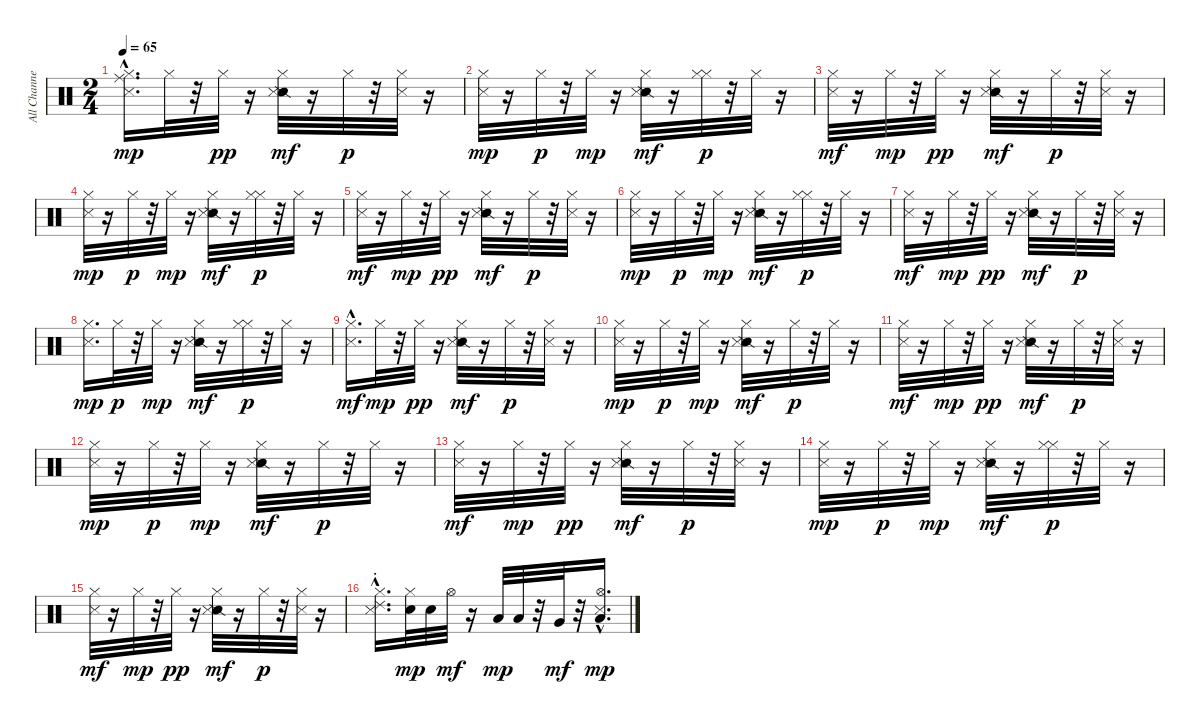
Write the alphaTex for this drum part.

\track ("All Channels*merged" "All Channe") {instrument percussion}
\staff {score}
\articulation defaults
\ts (2 4)
\tempo 65
\clef neutral
\ks c
("Metronome (hit)"{hac} "Hi-Hat (closed)" "Ride (middle)").16{d dy mp} "Hi-Hat (closed)".32 r.32 "Hi-Hat (closed)".32{dy pp} r.16 ("Snare (side stick) 2" "Snare (side stick) 3" "Hi-Hat (closed)").32{dy mf} r.16 "Hi-Hat (closed)".32{dy p} r.32 ("Metronome (hit)" "Hi-Hat (closed)").32 r.16 |
("Metronome (hit)" "Hi-Hat (closed)").32{dy mp} r.16 "Hi-Hat (closed)".32{dy p} r.32 "Hi-Hat (closed)".32{dy mp} r.16 ("Snare (side stick) 2" "Snare (side stick) 3" "Hi-Hat (closed)").32{dy mf} r.16 ("Hi-Hat (closed)" "Hi-Hat (closed)").32{dy p} r.32 "Hi-Hat (closed)".32 r.16 |
("Metronome (hit)" "Hi-Hat (closed)").32{dy mf} r.16 "Hi-Hat (closed)".32{dy mp} r.32 "Hi-Hat (closed)".32{dy pp} r.16 ("Snare (side stick) 2" "Snare (side stick) 3" "Hi-Hat (closed)").32{dy mf} r.16 "Hi-Hat (closed)".32{dy p} r.32 ("Metronome (hit)" "Hi-Hat (closed)").32 r.16 |
("Metronome (hit)" "Hi-Hat (closed)").32{dy mp} r.16 "Hi-Hat (closed)".32{dy p} r.32 "Hi-Hat (closed)".32{dy mp} r.16 ("Snare (side stick) 2" "Snare (side stick) 3" "Hi-Hat (closed)").32{dy mf} r.16 ("Hi-Hat (closed)" "Hi-Hat (closed)").32{dy p} r.32 "Hi-Hat (closed)".32 r.16 |
("Metronome (hit)" "Hi-Hat (closed)").32{dy mf} r.16 "Hi-Hat (closed)".32{dy mp} r.32 "Hi-Hat (closed)".32{dy pp} r.16 ("Snare (side stick) 2" "Snare (side stick) 3" "Hi-Hat (closed)").32{dy mf} r.16 "Hi-Hat (closed)".32{dy p} r.32 ("Metronome (hit)" "Hi-Hat (closed)").32 r.16 |
("Metronome (hit)" "Hi-Hat (closed)").32{dy mp} r.16 "Hi-Hat (closed)".32{dy p} r.32 "Hi-Hat (closed)".32{dy mp} r.16 ("Snare (side stick) 2" "Snare (side stick) 3" "Hi-Hat (closed)").32{dy mf} r.16 ("Hi-Hat (closed)" "Hi-Hat (closed)").32{dy p} r.32 "Hi-Hat (closed)".32 r.16 |
("Metronome (hit)" "Hi-Hat (closed)").32{dy mf} r.16 "Hi-Hat (closed)".32{dy mp} r.32 "Hi-Hat (closed)".32{dy pp} r.16 ("Snare (side stick) 2" "Snare (side stick) 3" "Hi-Hat (closed)").32{dy mf} r.16 "Hi-Hat (closed)".32{dy p} r.32 ("Metronome (hit)" "Hi-Hat (closed)").32 r.16 |
("Metronome (hit)" "Hi-Hat (closed)").16{d dy mp} "Hi-Hat (closed)".32{dy p} r.32 "Hi-Hat (closed)".32{dy mp} r.16 ("Snare (side stick) 2" "Snare (side stick) 3" "Hi-Hat (closed)").32{dy mf} r.16 ("Hi-Hat (closed)" "Hi-Hat (closed)").32{dy p} r.32 "Hi-Hat (closed)".32 r.16 |
("Metronome (hit)"{hac} "Hi-Hat (closed)").16{d dy mf} "Hi-Hat (closed)".32{dy mp} r.32 "Hi-Hat (closed)".32{dy pp} r.16 ("Snare (side stick) 2" "Snare (side stick) 3" "Hi-Hat (closed)").32{dy mf} r.16 "Hi-Hat (closed)".32{dy p} r.32 ("Metronome (hit)" "Hi-Hat (closed)").32 r.16 |
("Metronome (hit)" "Hi-Hat (closed)").32{dy mp} r.16 "Hi-Hat (closed)".32{dy p} r.32 "Hi-Hat (closed)".32{dy mp} r.16 ("Snare (side stick) 2" "Snare (side stick) 3" "Hi-Hat (closed)").32{dy mf} r.16 "Hi-Hat (closed)".32{dy p} r.32 "Hi-Hat (closed)".32 r.16 |
("Metronome (hit)" "Hi-Hat (closed)").32{dy mf} r.16 "Hi-Hat (closed)".32{dy mp} r.32 "Hi-Hat (closed)".32{dy pp} r.16 ("Snare (side stick) 2" "Snare (side stick) 3" "Hi-Hat (closed)").32{dy mf} r.16 "Hi-Hat (closed)".32{dy p} r.32 ("Metronome (hit)" "Hi-Hat (closed)").32 r.16 |
("Metronome (hit)" "Hi-Hat (closed)").32{dy mp} r.16 "Hi-Hat (closed)".32{dy p} r.32 "Hi-Hat (closed)".32{dy mp} r.16 ("Snare (side stick) 2" "Snare (side stick) 3" "Hi-Hat (closed)").32{dy mf} r.16 "Hi-Hat (closed)".32{dy p} r.32 "Hi-Hat (closed)".32 r.16 |
("Metronome (hit)" "Hi-Hat (closed)").32{dy mf} r.16 "Hi-Hat (closed)".32{dy mp} r.32 "Hi-Hat (closed)".32{dy pp} r.16 ("Snare (side stick) 2" "Snare (side stick) 3" "Hi-Hat (closed)").32{dy mf} r.16 "Hi-Hat (closed)".32{dy p} r.32 ("Metronome (hit)" "Hi-Hat (closed)").32 r.16 |
("Metronome (hit)" "Hi-Hat (closed)").32{dy mp} r.16 "Hi-Hat (closed)".32{dy p} r.32 "Hi-Hat (closed)".32{dy mp} r.16 ("Snare (side stick) 2" "Snare (side stick) 3" "Hi-Hat (closed)").32{dy mf} r.16 ("Hi-Hat (closed)" "Hi-Hat (closed)").32{dy p} r.32 "Hi-Hat (closed)".32 r.16 |
("Metronome (hit)" "Hi-Hat (closed)").32{dy mf} r.16 "Hi-Hat (closed)".32{dy mp} r.32 "Hi-Hat (closed)".32{dy pp} r.16 ("Snare (side stick) 2" "Snare (side stick) 3" "Hi-Hat (closed)").32{dy mf} r.16 "Hi-Hat (closed)".32{dy p} r.32 ("Metronome (hit)" "Hi-Hat (closed)").32 r.16 |
("Ride (choke) 2"{hac} "Metronome (hit)" "Hi-Hat (closed)").16{d} ("Electric Snare (hit)" "Hi-Hat (closed)").32{dy mp} "Electric Snare (hit)".32 "Hi-Hat (open)".32{dy mf} r.16 "Low Tom (hit)".32{dy mp} "Low Tom (hit)".32 r.32 "Very Low Tom (hit)".32{dy mf} r.32 ("Metronome (hit)"{hac} "Low Floor Tom (hit)" "Hi-Hat (open)").16{d dy mp}
